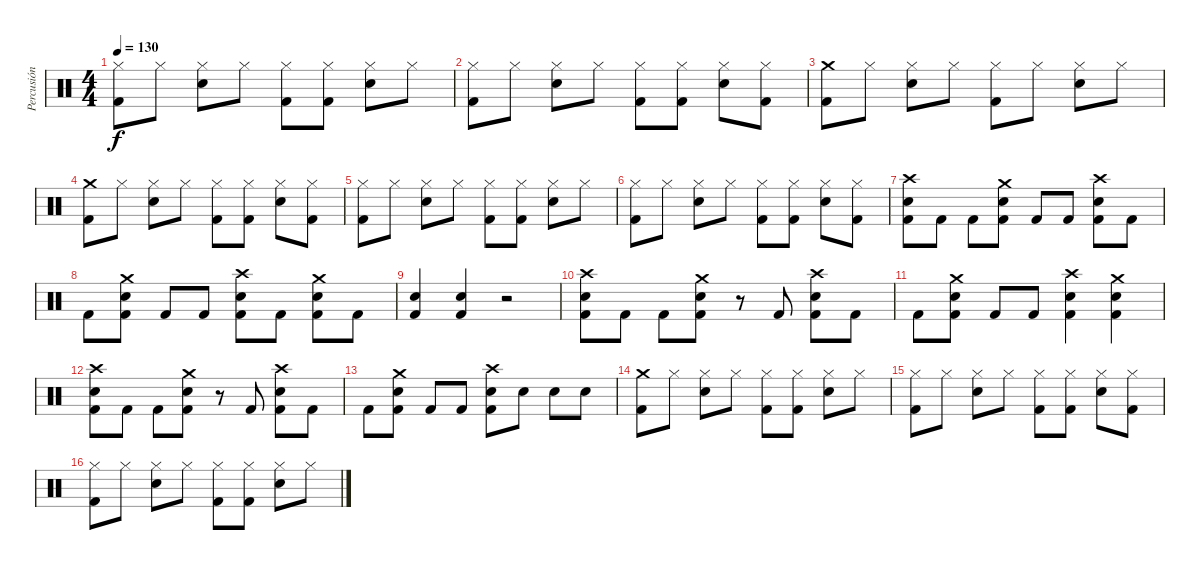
\track ("Percusión" "Percusión") {instrument percussion}
\staff {score}
\articulation defaults
\ts (4 4)
\tempo 130
\clef neutral
\ks c
("Kick (hit) 2" "Hi-Hat (closed)").8{dy f} "Hi-Hat (closed)".8 ("Snare (hit) 2" "Hi-Hat (closed)").8 "Hi-Hat (closed)".8 ("Kick (hit) 2" "Hi-Hat (closed)").8 ("Kick (hit) 2" "Hi-Hat (closed)").8 ("Snare (hit) 2" "Hi-Hat (closed)").8 "Hi-Hat (closed)".8 |
("Kick (hit) 2" "Hi-Hat (closed)").8 "Hi-Hat (closed)".8 ("Snare (hit) 2" "Hi-Hat (closed)").8 "Hi-Hat (closed)".8 ("Kick (hit) 2" "Hi-Hat (closed)").8 ("Kick (hit) 2" "Hi-Hat (closed)").8 ("Snare (hit) 2" "Hi-Hat (closed)").8 ("Kick (hit) 2" "Hi-Hat (closed)").8 |
("Kick (hit) 2" "Crash medium (hit)").8 "Hi-Hat (closed)".8 ("Snare (hit) 2" "Hi-Hat (closed)").8 "Hi-Hat (closed)".8 ("Kick (hit) 2" "Hi-Hat (closed)").8 "Hi-Hat (closed)".8 ("Snare (hit) 2" "Hi-Hat (closed)").8 "Hi-Hat (closed)".8 |
("Kick (hit) 2" "Crash medium (hit)").8 "Hi-Hat (closed)".8 ("Snare (hit) 2" "Hi-Hat (closed)").8 "Hi-Hat (closed)".8 ("Kick (hit) 2" "Hi-Hat (closed)").8 ("Kick (hit) 2" "Hi-Hat (closed)").8 ("Snare (hit) 2" "Hi-Hat (closed)").8 ("Kick (hit) 2" "Hi-Hat (closed)").8 |
("Kick (hit) 2" "Hi-Hat (closed)").8 "Hi-Hat (closed)".8 ("Snare (hit) 2" "Hi-Hat (closed)").8 "Hi-Hat (closed)".8 ("Kick (hit) 2" "Hi-Hat (closed)").8 ("Kick (hit) 2" "Hi-Hat (closed)").8 ("Snare (hit) 2" "Hi-Hat (closed)").8 "Hi-Hat (closed)".8 |
("Kick (hit) 2" "Hi-Hat (closed)").8 "Hi-Hat (closed)".8 ("Snare (hit) 2" "Hi-Hat (closed)").8 "Hi-Hat (closed)".8 ("Kick (hit) 2" "Hi-Hat (closed)").8 ("Kick (hit) 2" "Hi-Hat (closed)").8 ("Snare (hit) 2" "Hi-Hat (closed)").8 ("Kick (hit) 2" "Hi-Hat (closed)").8 |
("Kick (hit) 2" "Snare (hit) 2" "Crash high (hit)").8 "Kick (hit) 2".8 "Kick (hit) 2".8 ("Kick (hit) 2" "Snare (hit) 2" "Crash medium (hit)").8 "Kick (hit) 2".8 "Kick (hit) 2".8 ("Kick (hit) 2" "Snare (hit) 2" "Crash high (hit)").8 "Kick (hit) 2".8 |
"Kick (hit) 2".8 ("Kick (hit) 2" "Snare (hit) 2" "Crash medium (hit)").8 "Kick (hit) 2".8 "Kick (hit) 2".8 ("Kick (hit) 2" "Snare (hit) 2" "Crash high (hit)").8 "Kick (hit) 2".8 ("Kick (hit) 2" "Snare (hit) 2" "Crash medium (hit)").8 "Kick (hit) 2".8 |
("Kick (hit) 2" "Snare (hit) 2").4 ("Kick (hit) 2" "Snare (hit) 2").4 r.2 |
("Kick (hit) 2" "Snare (hit) 2" "Crash high (hit)").8 "Kick (hit) 2".8 "Kick (hit) 2".8 ("Kick (hit) 2" "Snare (hit) 2" "Crash medium (hit)").8 r.8 "Kick (hit) 2".8 ("Kick (hit) 2" "Snare (hit) 2" "Crash high (hit)").8 "Kick (hit) 2".8 |
"Kick (hit) 2".8 ("Kick (hit) 2" "Snare (hit) 2" "Crash medium (hit)").8 "Kick (hit) 2".8 "Kick (hit) 2".8 ("Kick (hit) 2" "Snare (hit) 2" "Crash high (hit)").4 ("Kick (hit) 2" "Snare (hit) 2" "Crash medium (hit)").4 |
("Kick (hit) 2" "Snare (hit) 2" "Crash high (hit)").8 "Kick (hit) 2".8 "Kick (hit) 2".8 ("Kick (hit) 2" "Snare (hit) 2" "Crash medium (hit)").8 r.8 "Kick (hit) 2".8 ("Kick (hit) 2" "Snare (hit) 2" "Crash high (hit)").8 "Kick (hit) 2".8 |
"Kick (hit) 2".8 ("Kick (hit) 2" "Snare (hit) 2" "Crash medium (hit)").8 "Kick (hit) 2".8 "Kick (hit) 2".8 ("Kick (hit) 2" "Snare (hit) 2" "Crash high (hit)").8 "Snare (hit) 2".8 "Snare (hit) 2".8 "Snare (hit) 2".8 |
("Kick (hit) 2" "Crash medium (hit)").8 "Hi-Hat (closed)".8 ("Snare (hit) 2" "Hi-Hat (closed)").8 "Hi-Hat (closed)".8 ("Kick (hit) 2" "Hi-Hat (closed)").8 ("Kick (hit) 2" "Hi-Hat (closed)").8 ("Snare (hit) 2" "Hi-Hat (closed)").8 "Hi-Hat (closed)".8 |
("Kick (hit) 2" "Hi-Hat (closed)").8 "Hi-Hat (closed)".8 ("Snare (hit) 2" "Hi-Hat (closed)").8 "Hi-Hat (closed)".8 ("Kick (hit) 2" "Hi-Hat (closed)").8 ("Kick (hit) 2" "Hi-Hat (closed)").8 ("Snare (hit) 2" "Hi-Hat (closed)").8 ("Kick (hit) 2" "Hi-Hat (closed)").8 |
("Kick (hit) 2" "Hi-Hat (closed)").8 "Hi-Hat (closed)".8 ("Snare (hit) 2" "Hi-Hat (closed)").8 "Hi-Hat (closed)".8 ("Kick (hit) 2" "Hi-Hat (closed)").8 ("Kick (hit) 2" "Hi-Hat (closed)").8 ("Snare (hit) 2" "Hi-Hat (closed)").8 "Hi-Hat (closed)".8
